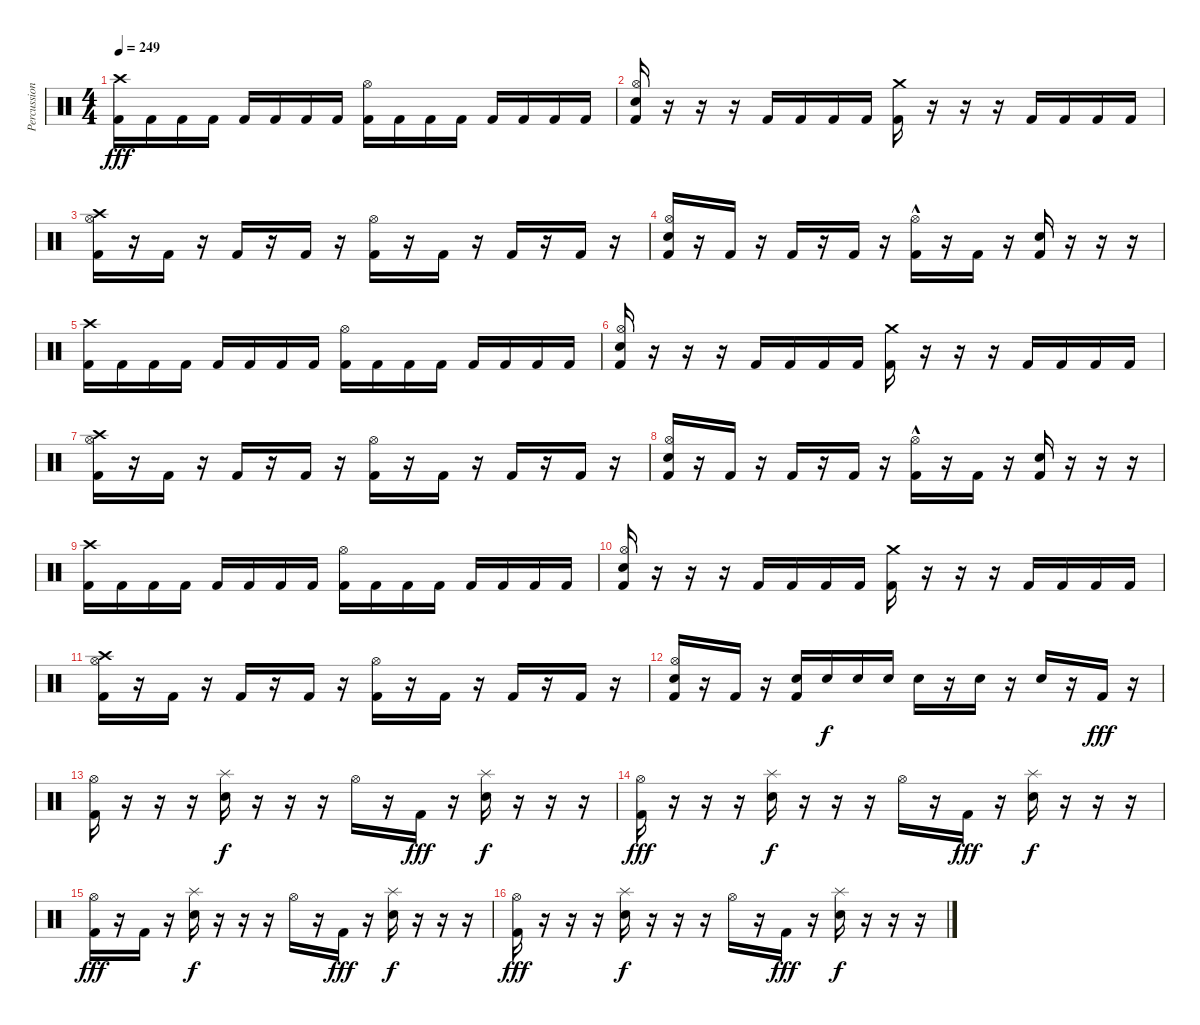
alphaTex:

\track ("Percussion" "Percussion") {instrument percussion}
\staff {score}
\articulation defaults
\ts (4 4)
\tempo 249
\clef neutral
\ks c
("Crash high (hit)" "Kick (hit) 2").16{dy fff} "Kick (hit) 2".16 "Kick (hit) 2".16 "Kick (hit) 2".16 "Kick (hit) 2".16 "Kick (hit) 2".16 "Kick (hit) 2".16 "Kick (hit) 2".16 ("Hi-Hat (open)" "Kick (hit) 2").16 "Kick (hit) 2".16 "Kick (hit) 2".16 "Kick (hit) 2".16 "Kick (hit) 2".16 "Kick (hit) 2".16 "Kick (hit) 2".16 "Kick (hit) 2".16 |
("Hi-Hat (open)" "Electric Snare (hit)" "Kick (hit) 2").16 r.16 r.16 r.16 "Kick (hit) 2".16 "Kick (hit) 2".16 "Kick (hit) 2".16 "Kick (hit) 2".16 ("Crash medium (hit)" "Kick (hit) 2").16 r.16 r.16 r.16 "Kick (hit) 2".16 "Kick (hit) 2".16 "Kick (hit) 2".16 "Kick (hit) 2".16 |
("Crash high (hit)" "Hi-Hat (open)" "Kick (hit) 2").16 r.16 "Kick (hit) 2".16 r.16 "Kick (hit) 2".16 r.16 "Kick (hit) 2".16 r.16 ("Hi-Hat (open)" "Kick (hit) 2").16 r.16 "Kick (hit) 2".16 r.16 "Kick (hit) 2".16 r.16 "Kick (hit) 2".16 r.16 |
("Hi-Hat (open)" "Electric Snare (hit)" "Kick (hit) 2").16 r.16 "Kick (hit) 2".16 r.16 "Kick (hit) 2".16 r.16 "Kick (hit) 2".16 r.16 ("Hi-Hat (open)" "Kick (hit) 2"{hac}).16 r.16 "Kick (hit) 2".16 r.16 ("Electric Snare (hit)" "Kick (hit) 2").16 r.16 r.16 r.16 |
("Crash high (hit)" "Kick (hit) 2").16 "Kick (hit) 2".16 "Kick (hit) 2".16 "Kick (hit) 2".16 "Kick (hit) 2".16 "Kick (hit) 2".16 "Kick (hit) 2".16 "Kick (hit) 2".16 ("Hi-Hat (open)" "Kick (hit) 2").16 "Kick (hit) 2".16 "Kick (hit) 2".16 "Kick (hit) 2".16 "Kick (hit) 2".16 "Kick (hit) 2".16 "Kick (hit) 2".16 "Kick (hit) 2".16 |
("Hi-Hat (open)" "Electric Snare (hit)" "Kick (hit) 2").16 r.16 r.16 r.16 "Kick (hit) 2".16 "Kick (hit) 2".16 "Kick (hit) 2".16 "Kick (hit) 2".16 ("Crash medium (hit)" "Kick (hit) 2").16 r.16 r.16 r.16 "Kick (hit) 2".16 "Kick (hit) 2".16 "Kick (hit) 2".16 "Kick (hit) 2".16 |
("Crash high (hit)" "Hi-Hat (open)" "Kick (hit) 2").16 r.16 "Kick (hit) 2".16 r.16 "Kick (hit) 2".16 r.16 "Kick (hit) 2".16 r.16 ("Hi-Hat (open)" "Kick (hit) 2").16 r.16 "Kick (hit) 2".16 r.16 "Kick (hit) 2".16 r.16 "Kick (hit) 2".16 r.16 |
("Hi-Hat (open)" "Electric Snare (hit)" "Kick (hit) 2").16 r.16 "Kick (hit) 2".16 r.16 "Kick (hit) 2".16 r.16 "Kick (hit) 2".16 r.16 ("Hi-Hat (open)" "Kick (hit) 2"{hac}).16 r.16 "Kick (hit) 2".16 r.16 ("Electric Snare (hit)" "Kick (hit) 2").16 r.16 r.16 r.16 |
("Crash high (hit)" "Kick (hit) 2").16 "Kick (hit) 2".16 "Kick (hit) 2".16 "Kick (hit) 2".16 "Kick (hit) 2".16 "Kick (hit) 2".16 "Kick (hit) 2".16 "Kick (hit) 2".16 ("Hi-Hat (open)" "Kick (hit) 2").16 "Kick (hit) 2".16 "Kick (hit) 2".16 "Kick (hit) 2".16 "Kick (hit) 2".16 "Kick (hit) 2".16 "Kick (hit) 2".16 "Kick (hit) 2".16 |
("Hi-Hat (open)" "Electric Snare (hit)" "Kick (hit) 2").16 r.16 r.16 r.16 "Kick (hit) 2".16 "Kick (hit) 2".16 "Kick (hit) 2".16 "Kick (hit) 2".16 ("Crash medium (hit)" "Kick (hit) 2").16 r.16 r.16 r.16 "Kick (hit) 2".16 "Kick (hit) 2".16 "Kick (hit) 2".16 "Kick (hit) 2".16 |
("Crash high (hit)" "Hi-Hat (open)" "Kick (hit) 2").16 r.16 "Kick (hit) 2".16 r.16 "Kick (hit) 2".16 r.16 "Kick (hit) 2".16 r.16 ("Hi-Hat (open)" "Kick (hit) 2").16 r.16 "Kick (hit) 2".16 r.16 "Kick (hit) 2".16 r.16 "Kick (hit) 2".16 r.16 |
("Hi-Hat (open)" "Electric Snare (hit)" "Kick (hit) 2").16 r.16 "Kick (hit) 2".16 r.16 ("Electric Snare (hit)" "Kick (hit) 2").16 "Electric Snare (hit)".16{dy f} "Electric Snare (hit)".16 "Electric Snare (hit)".16 "Electric Snare (hit)".16 r.16 "Electric Snare (hit)".16 r.16 "Electric Snare (hit)".16 r.16 "Kick (hit) 2".16{dy fff} r.16 |
("Hi-Hat (open)" "Kick (hit) 2").16 r.16 r.16 r.16 ("Splash (hit)" "Electric Snare (hit)").16{dy f} r.16 r.16 r.16 "Hi-Hat (open)".16 r.16 "Kick (hit) 2".16{dy fff} r.16 ("Splash (hit)" "Electric Snare (hit)").16{dy f} r.16 r.16 r.16 |
("Hi-Hat (open)" "Kick (hit) 2").16{dy fff} r.16 r.16 r.16 ("Splash (hit)" "Electric Snare (hit)").16{dy f} r.16 r.16 r.16 "Hi-Hat (open)".16 r.16 "Kick (hit) 2".16{dy fff} r.16 ("Splash (hit)" "Electric Snare (hit)").16{dy f} r.16 r.16 r.16 |
("Hi-Hat (open)" "Kick (hit) 2").16{dy fff} r.16 "Kick (hit) 2".16 r.16 ("Splash (hit)" "Electric Snare (hit)").16{dy f} r.16 r.16 r.16 "Hi-Hat (open)".16 r.16 "Kick (hit) 2".16{dy fff} r.16 ("Splash (hit)" "Electric Snare (hit)").16{dy f} r.16 r.16 r.16 |
("Hi-Hat (open)" "Kick (hit) 2").16{dy fff} r.16 r.16 r.16 ("Splash (hit)" "Electric Snare (hit)").16{dy f} r.16 r.16 r.16 "Hi-Hat (open)".16 r.16 "Kick (hit) 2".16{dy fff} r.16 ("Splash (hit)" "Electric Snare (hit)").16{dy f} r.16 r.16 r.16
